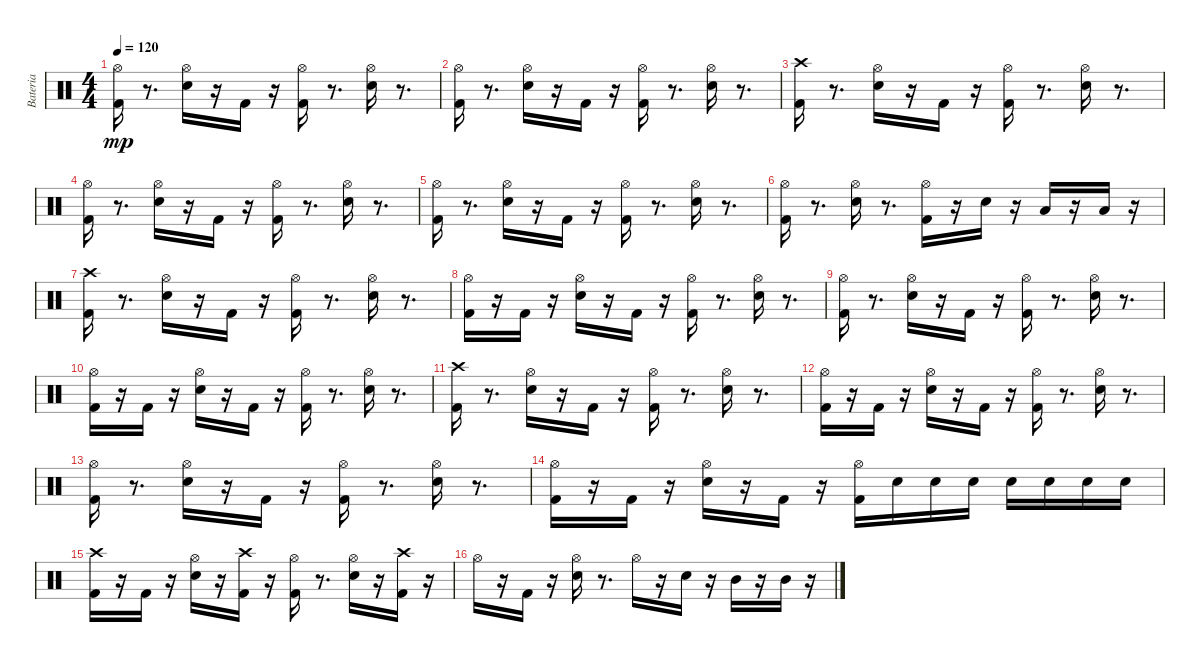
\track ("Bateria" "Bateria") {instrument percussion}
\staff {score}
\articulation defaults
\ts (4 4)
\tempo 120
\clef neutral
\ks c
("Hi-Hat (open)" "Kick (hit) 2").16{dy mp} r.8{d} ("Snare (hit) 2" "Hi-Hat (open)").16 r.16 "Kick (hit) 2".16 r.16 ("Hi-Hat (open)" "Kick (hit) 2").16 r.8{d} ("Hi-Hat (open)" "Snare (hit) 2").16 r.8{d} |
("Hi-Hat (open)" "Kick (hit) 2").16 r.8{d} ("Hi-Hat (open)" "Snare (hit) 2").16 r.16 "Kick (hit) 2".16 r.16 ("Hi-Hat (open)" "Kick (hit) 2").16 r.8{d} ("Hi-Hat (open)" "Snare (hit) 2").16 r.8{d} |
("Kick (hit) 2" "Crash high (hit)").16 r.8{d} ("Snare (hit) 2" "Hi-Hat (open)").16 r.16 "Kick (hit) 2".16 r.16 ("Hi-Hat (open)" "Kick (hit) 2").16 r.8{d} ("Hi-Hat (open)" "Snare (hit) 2").16 r.8{d} |
("Hi-Hat (open)" "Kick (hit) 2").16 r.8{d} ("Hi-Hat (open)" "Snare (hit) 2").16 r.16 "Kick (hit) 2".16 r.16 ("Hi-Hat (open)" "Kick (hit) 2").16 r.8{d} ("Hi-Hat (open)" "Snare (hit) 2").16 r.8{d} |
("Hi-Hat (open)" "Kick (hit) 2").16 r.8{d} ("Hi-Hat (open)" "Snare (hit) 2").16 r.16 "Kick (hit) 2".16 r.16 ("Hi-Hat (open)" "Kick (hit) 2").16 r.8{d} ("Hi-Hat (open)" "Snare (hit) 2").16 r.8{d} |
("Hi-Hat (open)" "Kick (hit) 2").16 r.8{d} ("Hi-Hat (open)" "Snare (hit) 2").16 r.8{d} ("Hi-Hat (open)" "Kick (hit) 2").16 r.16 "Snare (hit) 2".16 r.16 "Low Tom (hit)".16 r.16 "Low Tom (hit)".16 r.16 |
("Kick (hit) 2" "Crash high (hit)").16 r.8{d} ("Snare (hit) 2" "Hi-Hat (open)").16 r.16 "Kick (hit) 2".16 r.16 ("Hi-Hat (open)" "Kick (hit) 2").16 r.8{d} ("Hi-Hat (open)" "Snare (hit) 2").16 r.8{d} |
("Hi-Hat (open)" "Kick (hit) 2").16 r.16 "Kick (hit) 2".16 r.16 ("Hi-Hat (open)" "Snare (hit) 2").16 r.16 "Kick (hit) 2".16 r.16 ("Hi-Hat (open)" "Kick (hit) 2").16 r.8{d} ("Hi-Hat (open)" "Snare (hit) 2").16 r.8{d} |
("Hi-Hat (open)" "Kick (hit) 2").16 r.8{d} ("Snare (hit) 2" "Hi-Hat (open)").16 r.16 "Kick (hit) 2".16 r.16 ("Hi-Hat (open)" "Kick (hit) 2").16 r.8{d} ("Hi-Hat (open)" "Snare (hit) 2").16 r.8{d} |
("Hi-Hat (open)" "Kick (hit) 2").16 r.16 "Kick (hit) 2".16 r.16 ("Hi-Hat (open)" "Snare (hit) 2").16 r.16 "Kick (hit) 2".16 r.16 ("Hi-Hat (open)" "Kick (hit) 2").16 r.8{d} ("Hi-Hat (open)" "Snare (hit) 2").16 r.8{d} |
("Kick (hit) 2" "Crash high (hit)").16 r.8{d} ("Snare (hit) 2" "Hi-Hat (open)").16 r.16 "Kick (hit) 2".16 r.16 ("Hi-Hat (open)" "Kick (hit) 2").16 r.8{d} ("Hi-Hat (open)" "Snare (hit) 2").16 r.8{d} |
("Hi-Hat (open)" "Kick (hit) 2").16 r.16 "Kick (hit) 2".16 r.16 ("Hi-Hat (open)" "Snare (hit) 2").16 r.16 "Kick (hit) 2".16 r.16 ("Hi-Hat (open)" "Kick (hit) 2").16 r.8{d} ("Hi-Hat (open)" "Snare (hit) 2").16 r.8{d} |
("Hi-Hat (open)" "Kick (hit) 2").16 r.8{d} ("Snare (hit) 2" "Hi-Hat (open)").16 r.16 "Kick (hit) 2".16 r.16 ("Hi-Hat (open)" "Kick (hit) 2").16 r.8{d} ("Hi-Hat (open)" "Snare (hit) 2").16 r.8{d} |
("Hi-Hat (open)" "Kick (hit) 2").16 r.16 "Kick (hit) 2".16 r.16 ("Hi-Hat (open)" "Snare (hit) 2").16 r.16 "Kick (hit) 2".16 r.16 ("Hi-Hat (open)" "Kick (hit) 2").16 "Snare (hit) 2".16 "Snare (hit) 2".16 "Snare (hit) 2".16 "Snare (hit) 2".16 "Snare (hit) 2".16 "Snare (hit) 2".16 "Snare (hit) 2".16 |
("Crash high (hit)" "Kick (hit) 2").16 r.16 "Kick (hit) 2".16 r.16 ("Hi-Hat (open)" "Snare (hit) 2").16 r.16 ("Crash high (hit)" "Kick (hit) 2").16 r.16 ("Hi-Hat (open)" "Kick (hit) 2").16 r.8{d} ("Hi-Hat (open)" "Snare (hit) 2").16 r.16 ("Kick (hit) 2" "Crash high (hit)").16 r.16 |
"Hi-Hat (open)".16 r.16 "Kick (hit) 2".16 r.16 ("Hi-Hat (open)" "Snare (hit) 2").16 r.8{d} "Hi-Hat (open)".16 r.16 "Snare (hit) 2".16 r.16 "Mid Tom (hit)".16 r.16 "Mid Tom (hit)".16 r.16
